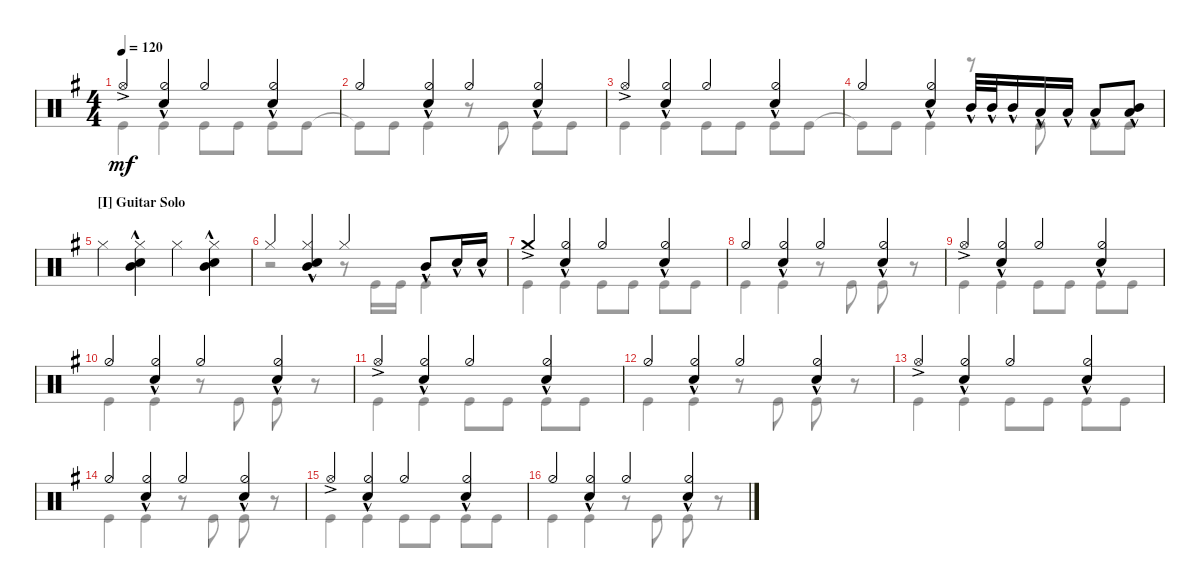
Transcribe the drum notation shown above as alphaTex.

\defaultSystemsLayout 4
\bracketExtendMode groupsimilarinstruments
\singleTrackTrackNamePolicy hidden
\multiTrackTrackNamePolicy hidden
\firstSystemTrackNameOrientation horizontal
\otherSystemsTrackNameOrientation horizontal
\track ("Maksim Udalov" "Drums") {instrument percussion}
\staff {score}
\articulation defaults
\voice
\ts (4 4)
\tempo 120
\clef neutral
\scale
1.02648
\ks g "Hi-Hat (open)"{ac}.4{dy mf}
("Snare (hit) 2"{hac} "Hi-Hat (half)").4 "Hi-Hat (half)".4 ("Snare (hit) 2"{hac} "Hi-Hat (half)").4 |
\scale
0.973518 "Hi-Hat (half)".4 ("Hi-Hat (half)" "Snare (hit) 2"{hac}).4 "Hi-Hat (half)".4 ("Hi-Hat (half)" "Snare (hit) 2"{hac}).4 |
\scale
1.02648 "Hi-Hat (open)"{ac}.4 ("Snare (hit) 2"{hac} "Hi-Hat (half)").4 "Hi-Hat (half)".4 ("Snare (hit) 2"{hac} "Hi-Hat (half)").4 |
\scale
0.973518 "Hi-Hat (half)".4 ("Hi-Hat (half)" "Snare (hit) 2"{hac}).4 "Mid Tom (hit)"{hac}.32 "Mid Tom (hit)"{hac}.32 "Mid Tom (hit)"{hac}.16 "Low Tom (hit)"{hac}.16 "Low Tom (hit)"{hac}.16 "Low Tom (hit)"{hac}.8 ("Low Tom (hit)"{hac} "Mid Tom (hit)"{hac}).8 |
\section ("I" "Guitar Solo")
\scale
1.02648 "Hi-Hat (closed)".4 ("Hi-Hat (closed)" "Snare (hit) 2"{hac} "Mid Tom (hit)").4 "Hi-Hat (closed)".4 ("Hi-Hat (closed)" "Snare (hit) 2"{hac} "Mid Tom (hit)").4 |
\scale
0.973518 "Hi-Hat (closed)".4 ("Hi-Hat (closed)" "Snare (hit) 2"{hac} "Mid Tom (hit)").4 "Hi-Hat (closed)".4 "Mid Tom (hit)"{hac}.8 "Snare (hit) 2"{hac}.16 "Snare (hit) 2"{hac}.16 |
\scale
1.02648 "Crash medium (hit)"{ac}.4 ("Hi-Hat (half)" "Snare (hit) 2"{hac}).4 "Hi-Hat (half)".4 ("Hi-Hat (half)" "Snare (hit) 2"{hac}).4 |
\scale
0.973518 "Hi-Hat (half)".4 ("Hi-Hat (half)" "Snare (hit) 2"{hac}).4 "Hi-Hat (half)".4 ("Hi-Hat (half)" "Snare (hit) 2"{hac}).4 |
\scale
1.02648 "Hi-Hat (open)"{ac}.4 ("Hi-Hat (half)" "Snare (hit) 2"{hac}).4 "Hi-Hat (half)".4 ("Hi-Hat (half)" "Snare (hit) 2"{hac}).4 |
\scale
0.973518 "Hi-Hat (half)".4 ("Hi-Hat (half)" "Snare (hit) 2"{hac}).4 "Hi-Hat (half)".4 ("Hi-Hat (half)" "Snare (hit) 2"{hac}).4 |
\scale
1.02648 "Hi-Hat (open)"{ac}.4 ("Hi-Hat (half)" "Snare (hit) 2"{hac}).4 "Hi-Hat (half)".4 ("Hi-Hat (half)" "Snare (hit) 2"{hac}).4 |
\scale
0.973518 "Hi-Hat (half)".4 ("Hi-Hat (half)" "Snare (hit) 2"{hac}).4 "Hi-Hat (half)".4 ("Hi-Hat (half)" "Snare (hit) 2"{hac}).4 |
\scale
1.02648 "Hi-Hat (open)"{ac}.4 ("Hi-Hat (half)" "Snare (hit) 2"{hac}).4 "Hi-Hat (half)".4 ("Hi-Hat (half)" "Snare (hit) 2"{hac}).4 |
\scale
0.973518 "Hi-Hat (half)".4 ("Hi-Hat (half)" "Snare (hit) 2"{hac}).4 "Hi-Hat (half)".4 ("Hi-Hat (half)" "Snare (hit) 2"{hac}).4 |
\scale
1.02648 "Hi-Hat (open)"{ac}.4 ("Hi-Hat (half)" "Snare (hit) 2"{hac}).4 "Hi-Hat (half)".4 ("Hi-Hat (half)" "Snare (hit) 2"{hac}).4 |
\scale
0.973518 "Hi-Hat (half)".4 ("Hi-Hat (half)" "Snare (hit) 2"{hac}).4 "Hi-Hat (half)".4 ("Hi-Hat (half)" "Snare (hit) 2"{hac}).4
\voice
\clef neutral
\ottava regular
\simile none
\scale
1.02648
\ks g "Kick (hit)".4{dy mf} "Kick (hit)".4 "Kick (hit)".8 "Kick (hit)".8 "Kick (hit)".8 "Kick (hit)".8
|
\scale
0.973518 "Kick (hit)"{t}.8 "Kick (hit)".8 "Kick (hit)".4 r.8 "Kick (hit)".8 "Kick (hit)".8 "Kick (hit)".8 |
\scale
1.02648 "Kick (hit)".4 "Kick (hit)".4 "Kick (hit)".8 "Kick (hit)".8 "Kick (hit)".8 "Kick (hit)".8 |
\scale
0.973518 "Kick (hit)"{t}.8 "Kick (hit)".8 "Kick (hit)".4 r.8 "Kick (hit)".8 "Kick (hit)".8 "Kick (hit)".8 |
\scale
1.02648 |
\scale
0.973518 r.2 r.8 "Kick (hit)".16 "Kick (hit)".16 "Kick (hit)".4 |
\scale
1.02648 "Kick (hit)".4 "Kick (hit)".4 "Kick (hit)".8 "Kick (hit)".8 "Kick (hit)".8 "Kick (hit)".8 |
\scale
0.973518 "Kick (hit)".4 "Kick (hit)".4 r.8 "Kick (hit)".8 "Kick (hit)".8 r.8 |
\scale
1.02648 "Kick (hit)".4 "Kick (hit)".4 "Kick (hit)".8 "Kick (hit)".8 "Kick (hit)".8 "Kick (hit)".8 |
\scale
0.973518 "Kick (hit)".4 "Kick (hit)".4 r.8 "Kick (hit)".8 "Kick (hit)".8 r.8 |
\scale
1.02648 "Kick (hit)".4 "Kick (hit)".4 "Kick (hit)".8 "Kick (hit)".8 "Kick (hit)".8 "Kick (hit)".8 |
\scale
0.973518 "Kick (hit)".4 "Kick (hit)".4 r.8 "Kick (hit)".8 "Kick (hit)".8 r.8 |
\scale
1.02648 "Kick (hit)".4 "Kick (hit)".4 "Kick (hit)".8 "Kick (hit)".8 "Kick (hit)".8 "Kick (hit)".8 |
\scale
0.973518 "Kick (hit)".4 "Kick (hit)".4 r.8 "Kick (hit)".8 "Kick (hit)".8 r.8 |
\scale
1.02648 "Kick (hit)".4 "Kick (hit)".4 "Kick (hit)".8 "Kick (hit)".8 "Kick (hit)".8 "Kick (hit)".8 |
\scale
0.973518 "Kick (hit)".4 "Kick (hit)".4 r.8 "Kick (hit)".8 "Kick (hit)".8 r.8
